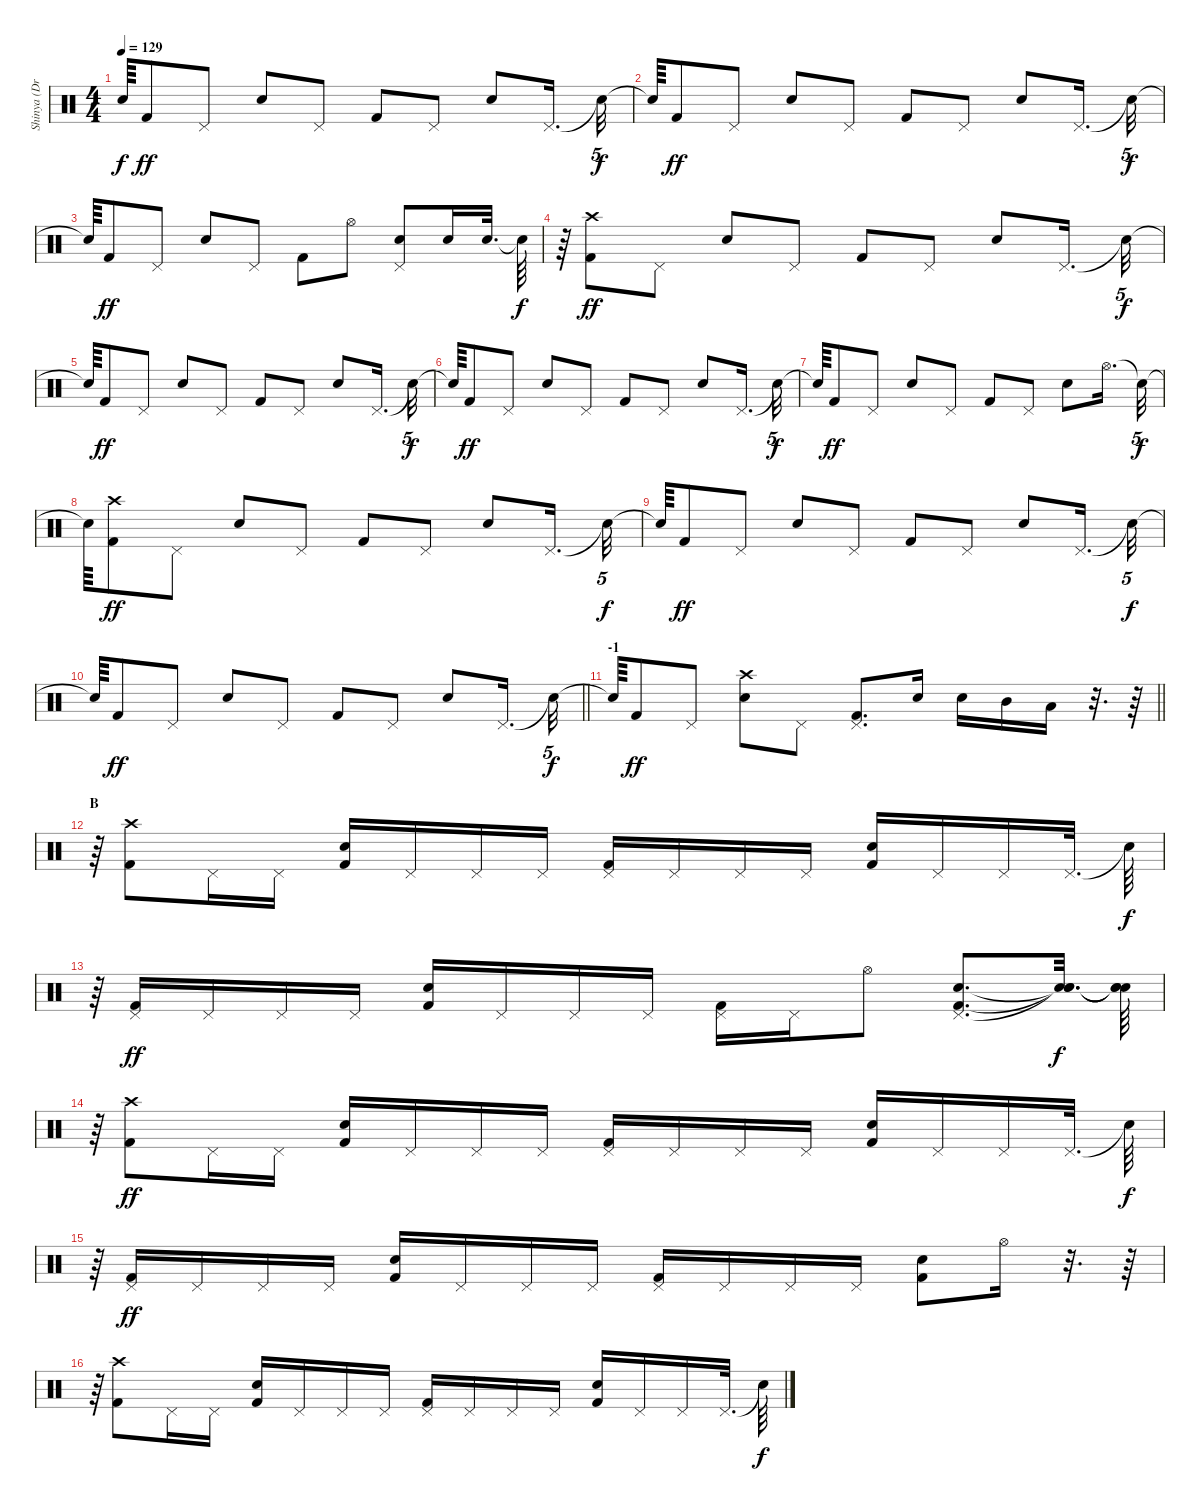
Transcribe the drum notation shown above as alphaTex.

\track ("Shinya (Drums)" "Shinya (Dr") {instrument percussion}
\staff {score}
\articulation defaults
\ts (4 4)
\tempo 129
\clef neutral
\ks c "Snare (hit)"{t}.64{dy f} "Kick (hit) 2".8{dy ff} "Pedal Hi-Hat (hit)".8 "Electric Snare (hit)".8 "Pedal Hi-Hat (hit)".8 "Kick (hit) 2".8 "Pedal Hi-Hat (hit)".8 "Electric Snare (hit)".8 "Pedal Hi-Hat (hit)".16{d} "Snare (hit)"{t}.32{tu (5 4) dy f}
|
"Snare (hit)"{t}.64 "Kick (hit) 2".8{dy ff} "Pedal Hi-Hat (hit)".8 "Electric Snare (hit)".8 "Pedal Hi-Hat (hit)".8 "Kick (hit) 2".8 "Pedal Hi-Hat (hit)".8 "Electric Snare (hit)".8 "Pedal Hi-Hat (hit)".16{d} "Snare (hit)"{t}.32{tu (5 4) dy f} |
"Snare (hit)"{t}.64 "Kick (hit) 2".8{dy ff} "Pedal Hi-Hat (hit)".8 "Electric Snare (hit)".8 "Pedal Hi-Hat (hit)".8 "Kick (hit) 2".8 "Hi-Hat (open)".8 ("Electric Snare (hit)" "Pedal Hi-Hat (hit)").8 "Electric Snare (hit)".16 "Electric Snare (hit)".32{d} "Snare (hit)"{t}.64{dy f} |
r.64 ("Crash high (hit)" "Kick (hit) 2").8{dy ff} "Pedal Hi-Hat (hit)".8 "Electric Snare (hit)".8 "Pedal Hi-Hat (hit)".8 "Kick (hit) 2".8 "Pedal Hi-Hat (hit)".8 "Electric Snare (hit)".8 "Pedal Hi-Hat (hit)".16{d} "Snare (hit)"{t}.32{tu (5 4) dy f} |
"Snare (hit)"{t}.64 "Kick (hit) 2".8{dy ff} "Pedal Hi-Hat (hit)".8 "Electric Snare (hit)".8 "Pedal Hi-Hat (hit)".8 "Kick (hit) 2".8 "Pedal Hi-Hat (hit)".8 "Electric Snare (hit)".8 "Pedal Hi-Hat (hit)".16{d} "Snare (hit)"{t}.32{tu (5 4) dy f} |
"Snare (hit)"{t}.64 "Kick (hit) 2".8{dy ff} "Pedal Hi-Hat (hit)".8 "Electric Snare (hit)".8 "Pedal Hi-Hat (hit)".8 "Kick (hit) 2".8 "Pedal Hi-Hat (hit)".8 "Electric Snare (hit)".8 "Pedal Hi-Hat (hit)".16{d} "Snare (hit)"{t}.32{tu (5 4) dy f} |
"Snare (hit)"{t}.64 "Kick (hit) 2".8{dy ff} "Pedal Hi-Hat (hit)".8 "Electric Snare (hit)".8 "Pedal Hi-Hat (hit)".8 "Kick (hit) 2".8 "Pedal Hi-Hat (hit)".8 "Electric Snare (hit)".8 "Hi-Hat (open)".16{d} "Snare (hit)"{t}.32{tu (5 4) dy f} |
"Snare (hit)"{t}.64 ("Crash high (hit)" "Kick (hit) 2").8{dy ff} "Pedal Hi-Hat (hit)".8 "Electric Snare (hit)".8 "Pedal Hi-Hat (hit)".8 "Kick (hit) 2".8 "Pedal Hi-Hat (hit)".8 "Electric Snare (hit)".8 "Pedal Hi-Hat (hit)".16{d} "Snare (hit)"{t}.32{tu (5 4) dy f} |
"Snare (hit)"{t}.64 "Kick (hit) 2".8{dy ff} "Pedal Hi-Hat (hit)".8 "Electric Snare (hit)".8 "Pedal Hi-Hat (hit)".8 "Kick (hit) 2".8 "Pedal Hi-Hat (hit)".8 "Electric Snare (hit)".8 "Pedal Hi-Hat (hit)".16{d} "Snare (hit)"{t}.32{tu (5 4) dy f} |
\barLineRight lightlight "Snare (hit)"{t}.64 "Kick (hit) 2".8{dy ff} "Pedal Hi-Hat (hit)".8 "Electric Snare (hit)".8 "Pedal Hi-Hat (hit)".8 "Kick (hit) 2".8 "Pedal Hi-Hat (hit)".8 "Electric Snare (hit)".8 "Pedal Hi-Hat (hit)".16{d} "Snare (hit)"{t}.32{tu (5 4) dy f}
|
\section ("" "-1")
\barLineRight lightlight "Snare (hit)"{t}.64 "Kick (hit) 2".8{dy ff} "Pedal Hi-Hat (hit)".8
("Electric Snare (hit)" "Crash high (hit)").8 "Pedal Hi-Hat (hit)".8 ("Kick (hit) 2" "Pedal Hi-Hat (hit)").8{d} "Electric Snare (hit)".16 "Electric Snare (hit)".16 "Mid Tom (hit)".16 "Low Tom (hit)".16 r.32{d} r.64 |
\section ("" "B")
r.64 ("Crash high (hit)" "Kick (hit) 2").8 "Pedal Hi-Hat (hit)".16 "Pedal Hi-Hat (hit)".16 ("Electric Snare (hit)" "Kick (hit) 2").16 "Pedal Hi-Hat (hit)".16 "Pedal Hi-Hat (hit)".16 "Pedal Hi-Hat (hit)".16 ("Pedal Hi-Hat (hit)" "Kick (hit) 2").16 "Pedal Hi-Hat (hit)".16 "Pedal Hi-Hat (hit)".16 "Pedal Hi-Hat (hit)".16 ("Electric Snare (hit)" "Kick (hit) 2").16 "Pedal Hi-Hat (hit)".16 "Pedal Hi-Hat (hit)".16 "Pedal Hi-Hat (hit)".32{d} "Snare (hit)"{t}.64{dy f} |
r.64 ("Kick (hit) 2" "Pedal Hi-Hat (hit)").16{dy ff} "Pedal Hi-Hat (hit)".16 "Pedal Hi-Hat (hit)".16 "Pedal Hi-Hat (hit)".16 ("Kick (hit) 2" "Electric Snare (hit)").16 "Pedal Hi-Hat (hit)".16 "Pedal Hi-Hat (hit)".16 "Pedal Hi-Hat (hit)".16 ("Kick (hit) 2" "Pedal Hi-Hat (hit)").16 "Pedal Hi-Hat (hit)".16 "Hi-Hat (open)".8 ("Kick (hit) 2" "Pedal Hi-Hat (hit)" "Electric Snare (hit)").8{d} ("Snare (hit)"{t} "Snare (hit)"{t} "Snare (hit)"{t}).32{d dy f} ("Snare (hit)"{t} "Snare (hit)"{t} "Snare (hit)"{t}).64 |
r.64 ("Crash high (hit)" "Kick (hit) 2").8{dy ff} "Pedal Hi-Hat (hit)".16 "Pedal Hi-Hat (hit)".16 ("Electric Snare (hit)" "Kick (hit) 2").16 "Pedal Hi-Hat (hit)".16 "Pedal Hi-Hat (hit)".16 "Pedal Hi-Hat (hit)".16 ("Pedal Hi-Hat (hit)" "Kick (hit) 2").16 "Pedal Hi-Hat (hit)".16 "Pedal Hi-Hat (hit)".16 "Pedal Hi-Hat (hit)".16 ("Electric Snare (hit)" "Kick (hit) 2").16 "Pedal Hi-Hat (hit)".16 "Pedal Hi-Hat (hit)".16 "Pedal Hi-Hat (hit)".32{d} "Snare (hit)"{t}.64{dy f} |
r.64 ("Kick (hit) 2" "Pedal Hi-Hat (hit)").16{dy ff} "Pedal Hi-Hat (hit)".16 "Pedal Hi-Hat (hit)".16 "Pedal Hi-Hat (hit)".16 ("Electric Snare (hit)" "Kick (hit) 2").16 "Pedal Hi-Hat (hit)".16 "Pedal Hi-Hat (hit)".16 "Pedal Hi-Hat (hit)".16 ("Pedal Hi-Hat (hit)" "Kick (hit) 2").16 "Pedal Hi-Hat (hit)".16 "Pedal Hi-Hat (hit)".16 "Pedal Hi-Hat (hit)".16 ("Electric Snare (hit)" "Kick (hit) 2").8 "Hi-Hat (open)".16 r.32{d} r.64 |
r.64 ("Crash high (hit)" "Kick (hit) 2").8 "Pedal Hi-Hat (hit)".16 "Pedal Hi-Hat (hit)".16 ("Electric Snare (hit)" "Kick (hit) 2").16 "Pedal Hi-Hat (hit)".16 "Pedal Hi-Hat (hit)".16 "Pedal Hi-Hat (hit)".16 ("Pedal Hi-Hat (hit)" "Kick (hit) 2").16 "Pedal Hi-Hat (hit)".16 "Pedal Hi-Hat (hit)".16 "Pedal Hi-Hat (hit)".16 ("Electric Snare (hit)" "Kick (hit) 2").16 "Pedal Hi-Hat (hit)".16 "Pedal Hi-Hat (hit)".16 "Pedal Hi-Hat (hit)".32{d} "Snare (hit)"{t}.64{dy f}
